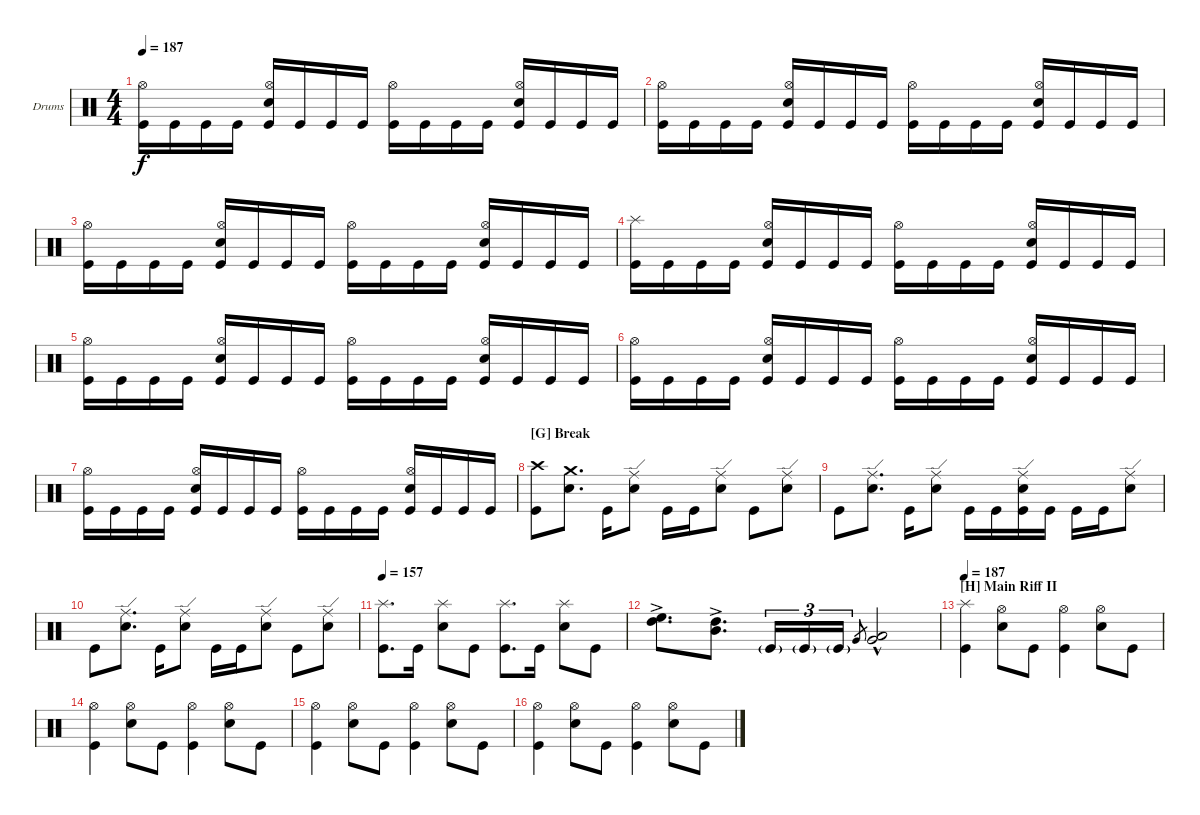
\defaultSystemsLayout 4
\bracketExtendMode groupsimilarinstruments
\firstSystemTrackNameOrientation horizontal
\otherSystemsTrackNameOrientation horizontal
\track ("Drumkit" "Drums") {instrument percussion}
\staff {score}
\articulation defaults
\ts (4 4)
\tempo 187
\clef neutral
\ks c
("Kick (hit)" "Hi-Hat (open)").16{dy f} "Kick (hit)".16 "Kick (hit)".16 "Kick (hit)".16 ("Snare (hit) 2" "Hi-Hat (open)" "Kick (hit)").16 "Kick (hit)".16 "Kick (hit)".16 "Kick (hit)".16 ("Kick (hit)" "Hi-Hat (open)").16 "Kick (hit)".16 "Kick (hit)".16 "Kick (hit)".16 ("Snare (hit) 2" "Hi-Hat (open)" "Kick (hit)").16 "Kick (hit)".16 "Kick (hit)".16 "Kick (hit)".16 |
("Kick (hit)" "Hi-Hat (open)").16 "Kick (hit)".16 "Kick (hit)".16 "Kick (hit)".16 ("Snare (hit) 2" "Hi-Hat (open)" "Kick (hit)").16 "Kick (hit)".16 "Kick (hit)".16 "Kick (hit)".16 ("Kick (hit)" "Hi-Hat (open)").16 "Kick (hit)".16 "Kick (hit)".16 "Kick (hit)".16 ("Snare (hit) 2" "Hi-Hat (open)" "Kick (hit)").16 "Kick (hit)".16 "Kick (hit)".16 "Kick (hit)".16 |
("Kick (hit)" "Hi-Hat (open)").16 "Kick (hit)".16 "Kick (hit)".16 "Kick (hit)".16 ("Snare (hit) 2" "Hi-Hat (open)" "Kick (hit)").16 "Kick (hit)".16 "Kick (hit)".16 "Kick (hit)".16 ("Kick (hit)" "Hi-Hat (open)").16 "Kick (hit)".16 "Kick (hit)".16 "Kick (hit)".16 ("Snare (hit) 2" "Hi-Hat (open)" "Kick (hit)").16 "Kick (hit)".16 "Kick (hit)".16 "Kick (hit)".16 |
("Splash (hit)" "Kick (hit)").16 "Kick (hit)".16 "Kick (hit)".16 "Kick (hit)".16 ("Snare (hit) 2" "Hi-Hat (open)" "Kick (hit)").16 "Kick (hit)".16 "Kick (hit)".16 "Kick (hit)".16 ("Kick (hit)" "Hi-Hat (open)").16 "Kick (hit)".16 "Kick (hit)".16 "Kick (hit)".16 ("Snare (hit) 2" "Hi-Hat (open)" "Kick (hit)").16 "Kick (hit)".16 "Kick (hit)".16 "Kick (hit)".16 |
("Kick (hit)" "Hi-Hat (open)").16 "Kick (hit)".16 "Kick (hit)".16 "Kick (hit)".16 ("Snare (hit) 2" "Hi-Hat (open)" "Kick (hit)").16 "Kick (hit)".16 "Kick (hit)".16 "Kick (hit)".16 ("Kick (hit)" "Hi-Hat (open)").16 "Kick (hit)".16 "Kick (hit)".16 "Kick (hit)".16 ("Snare (hit) 2" "Hi-Hat (open)" "Kick (hit)").16 "Kick (hit)".16 "Kick (hit)".16 "Kick (hit)".16 |
("Kick (hit)" "Hi-Hat (open)").16 "Kick (hit)".16 "Kick (hit)".16 "Kick (hit)".16 ("Snare (hit) 2" "Hi-Hat (open)" "Kick (hit)").16 "Kick (hit)".16 "Kick (hit)".16 "Kick (hit)".16 ("Kick (hit)" "Hi-Hat (open)").16 "Kick (hit)".16 "Kick (hit)".16 "Kick (hit)".16 ("Snare (hit) 2" "Hi-Hat (open)" "Kick (hit)").16 "Kick (hit)".16 "Kick (hit)".16 "Kick (hit)".16 |
("Kick (hit)" "Hi-Hat (open)").16 "Kick (hit)".16 "Kick (hit)".16 "Kick (hit)".16 ("Snare (hit) 2" "Hi-Hat (open)" "Kick (hit)").16 "Kick (hit)".16 "Kick (hit)".16 "Kick (hit)".16 ("Kick (hit)" "Hi-Hat (open)").16 "Kick (hit)".16 "Kick (hit)".16 "Kick (hit)".16 ("Snare (hit) 2" "Hi-Hat (open)" "Kick (hit)").16 "Kick (hit)".16 "Kick (hit)".16 "Kick (hit)".16 |
\section ("G" "Break")
("Kick (hit)" "Crash high (hit)").8 ("Snare (hit) 2" "Crash medium (hit)").8{d} "Kick (hit)".16 ("Snare (hit) 2" "Ride (edge)").8 "Kick (hit)".16 "Kick (hit)".16 ("Snare (hit) 2" "Ride (edge)").8 "Kick (hit)".8 ("Snare (hit) 2" "Ride (edge)").8 |
"Kick (hit)".8 ("Snare (hit) 2" "Ride (edge)").8{d} "Kick (hit)".16 ("Snare (hit) 2" "Ride (edge)").8 "Kick (hit)".16 "Kick (hit)".16 ("Kick (hit)" "Snare (hit) 2" "Ride (edge)").16 "Kick (hit)".16 "Kick (hit)".16 "Kick (hit)".16 ("Snare (hit) 2" "Ride (edge)").8 |
"Kick (hit)".8 ("Snare (hit) 2" "Ride (edge)").8{d} "Kick (hit)".16 ("Snare (hit) 2" "Ride (edge)").8 "Kick (hit)".16 "Kick (hit)".16 ("Snare (hit) 2" "Ride (edge)").8 "Kick (hit)".8 ("Snare (hit) 2" "Ride (edge)").8 |
\tempo 157
("Kick (hit)" "Splash (hit)").8{d} "Kick (hit)".16 ("Snare (hit) 2" "Splash (hit)").8 "Kick (hit)".8 ("Kick (hit)" "Splash (hit)").8{d} "Kick (hit)".16 ("Snare (hit) 2" "Splash (hit)").8 "Kick (hit)".8 |
("High Floor Tom (hit)" "High Tom (hit)"{ac}).8{d} ("High Tom (hit)" "Mid Tom (hit)"{ac}).8{d} "Kick (hit)"{g}.16{tu (3 2)} "Kick (hit)"{g}.16{tu (3 2)} "Kick (hit)"{g}.16{tu (3 2)} "Very Low Tom (hit)".8{gr} ("Low Tom (hit)" "Very Low Tom (hit)"{hac}).2 |
\section ("H" "Main Riff II")
\tempo 187
("Kick (hit)" "Splash (hit)").4 ("Snare (hit) 2" "Hi-Hat (open)").8 "Kick (hit)".8 ("Kick (hit)" "Hi-Hat (open)").4 ("Snare (hit) 2" "Hi-Hat (open)").8 "Kick (hit)".8 |
("Kick (hit)" "Hi-Hat (open)").4 ("Snare (hit) 2" "Hi-Hat (open)").8 "Kick (hit)".8 ("Kick (hit)" "Hi-Hat (open)").4 ("Snare (hit) 2" "Hi-Hat (open)").8 "Kick (hit)".8 |
("Kick (hit)" "Hi-Hat (open)").4 ("Snare (hit) 2" "Hi-Hat (open)").8 "Kick (hit)".8 ("Kick (hit)" "Hi-Hat (open)").4 ("Snare (hit) 2" "Hi-Hat (open)").8 "Kick (hit)".8 |
("Kick (hit)" "Hi-Hat (open)").4 ("Snare (hit) 2" "Hi-Hat (open)").8 "Kick (hit)".8 ("Kick (hit)" "Hi-Hat (open)").4 ("Snare (hit) 2" "Hi-Hat (open)").8 "Kick (hit)".8
